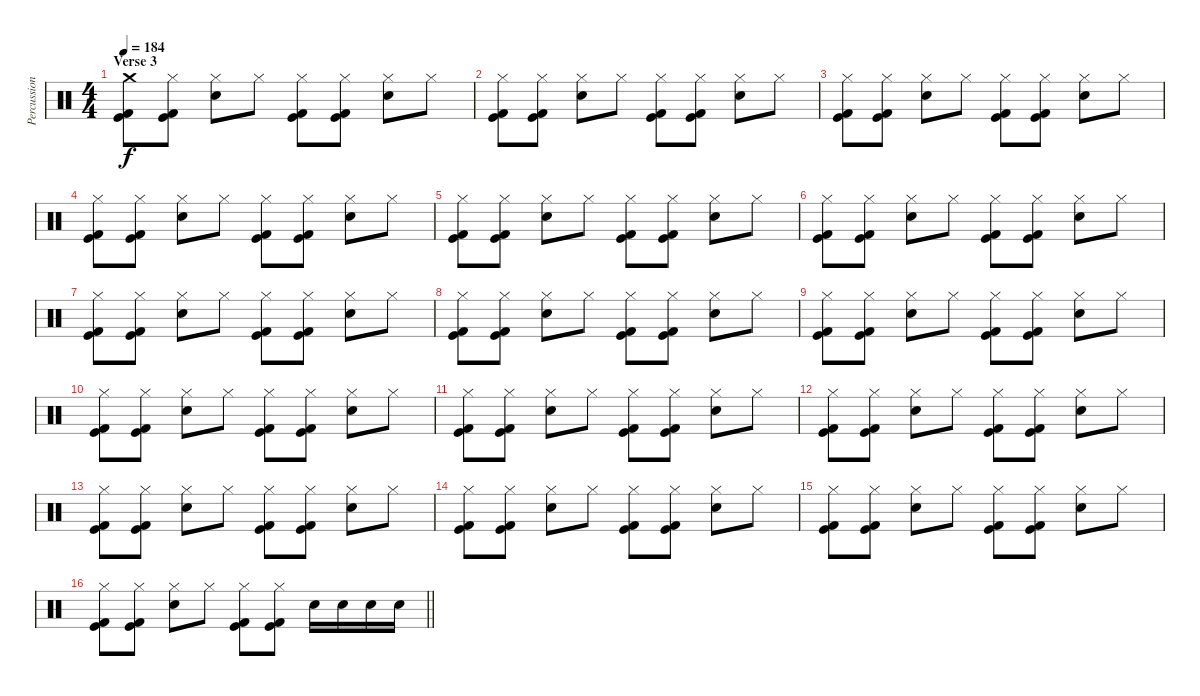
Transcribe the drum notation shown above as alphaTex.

\track ("Percussion" "Percussion") {instrument percussion}
\staff {score}
\articulation defaults
\ts (4 4)
\section ("" "Verse 3")
\tempo 184
\clef neutral
\ks c
("Crash medium (hit)" "Kick (hit)" "Kick (hit) 2").8{dy f} ("Hi-Hat (closed)" "Kick (hit)" "Kick (hit) 2").8 ("Hi-Hat (closed)" "Electric Snare (hit)").8 "Hi-Hat (closed)".8 ("Hi-Hat (closed)" "Kick (hit)" "Kick (hit) 2").8 ("Hi-Hat (closed)" "Kick (hit)" "Kick (hit) 2").8 ("Hi-Hat (closed)" "Electric Snare (hit)").8 "Hi-Hat (closed)".8 |
("Hi-Hat (closed)" "Kick (hit)" "Kick (hit) 2").8 ("Hi-Hat (closed)" "Kick (hit)" "Kick (hit) 2").8 ("Hi-Hat (closed)" "Electric Snare (hit)").8 "Hi-Hat (closed)".8 ("Hi-Hat (closed)" "Kick (hit)" "Kick (hit) 2").8 ("Hi-Hat (closed)" "Kick (hit)" "Kick (hit) 2").8 ("Hi-Hat (closed)" "Electric Snare (hit)").8 "Hi-Hat (closed)".8 |
("Hi-Hat (closed)" "Kick (hit)" "Kick (hit) 2").8 ("Hi-Hat (closed)" "Kick (hit)" "Kick (hit) 2").8 ("Hi-Hat (closed)" "Electric Snare (hit)").8 "Hi-Hat (closed)".8 ("Hi-Hat (closed)" "Kick (hit)" "Kick (hit) 2").8 ("Hi-Hat (closed)" "Kick (hit)" "Kick (hit) 2").8 ("Hi-Hat (closed)" "Electric Snare (hit)").8 "Hi-Hat (closed)".8 |
("Hi-Hat (closed)" "Kick (hit)" "Kick (hit) 2").8 ("Hi-Hat (closed)" "Kick (hit)" "Kick (hit) 2").8 ("Hi-Hat (closed)" "Electric Snare (hit)").8 "Hi-Hat (closed)".8 ("Hi-Hat (closed)" "Kick (hit)" "Kick (hit) 2").8 ("Hi-Hat (closed)" "Kick (hit)" "Kick (hit) 2").8 ("Hi-Hat (closed)" "Electric Snare (hit)").8 "Hi-Hat (closed)".8 |
("Hi-Hat (closed)" "Kick (hit)" "Kick (hit) 2").8 ("Hi-Hat (closed)" "Kick (hit)" "Kick (hit) 2").8 ("Hi-Hat (closed)" "Electric Snare (hit)").8 "Hi-Hat (closed)".8 ("Hi-Hat (closed)" "Kick (hit)" "Kick (hit) 2").8 ("Hi-Hat (closed)" "Kick (hit)" "Kick (hit) 2").8 ("Hi-Hat (closed)" "Electric Snare (hit)").8 "Hi-Hat (closed)".8 |
("Hi-Hat (closed)" "Kick (hit)" "Kick (hit) 2").8 ("Hi-Hat (closed)" "Kick (hit)" "Kick (hit) 2").8 ("Hi-Hat (closed)" "Electric Snare (hit)").8 "Hi-Hat (closed)".8 ("Hi-Hat (closed)" "Kick (hit)" "Kick (hit) 2").8 ("Hi-Hat (closed)" "Kick (hit)" "Kick (hit) 2").8 ("Hi-Hat (closed)" "Electric Snare (hit)").8 "Hi-Hat (closed)".8 |
("Hi-Hat (closed)" "Kick (hit)" "Kick (hit) 2").8 ("Hi-Hat (closed)" "Kick (hit)" "Kick (hit) 2").8 ("Hi-Hat (closed)" "Electric Snare (hit)").8 "Hi-Hat (closed)".8 ("Hi-Hat (closed)" "Kick (hit)" "Kick (hit) 2").8 ("Hi-Hat (closed)" "Kick (hit)" "Kick (hit) 2").8 ("Hi-Hat (closed)" "Electric Snare (hit)").8 "Hi-Hat (closed)".8 |
("Hi-Hat (closed)" "Kick (hit)" "Kick (hit) 2").8 ("Hi-Hat (closed)" "Kick (hit)" "Kick (hit) 2").8 ("Hi-Hat (closed)" "Electric Snare (hit)").8 "Hi-Hat (closed)".8 ("Hi-Hat (closed)" "Kick (hit)" "Kick (hit) 2").8 ("Hi-Hat (closed)" "Kick (hit)" "Kick (hit) 2").8 ("Hi-Hat (closed)" "Electric Snare (hit)").8 "Hi-Hat (closed)".8 |
("Hi-Hat (closed)" "Kick (hit)" "Kick (hit) 2").8 ("Hi-Hat (closed)" "Kick (hit)" "Kick (hit) 2").8 ("Hi-Hat (closed)" "Electric Snare (hit)").8 "Hi-Hat (closed)".8 ("Hi-Hat (closed)" "Kick (hit)" "Kick (hit) 2").8 ("Hi-Hat (closed)" "Kick (hit)" "Kick (hit) 2").8 ("Hi-Hat (closed)" "Electric Snare (hit)").8 "Hi-Hat (closed)".8 |
("Hi-Hat (closed)" "Kick (hit)" "Kick (hit) 2").8 ("Hi-Hat (closed)" "Kick (hit)" "Kick (hit) 2").8 ("Hi-Hat (closed)" "Electric Snare (hit)").8 "Hi-Hat (closed)".8 ("Hi-Hat (closed)" "Kick (hit)" "Kick (hit) 2").8 ("Hi-Hat (closed)" "Kick (hit)" "Kick (hit) 2").8 ("Hi-Hat (closed)" "Electric Snare (hit)").8 "Hi-Hat (closed)".8 |
("Hi-Hat (closed)" "Kick (hit)" "Kick (hit) 2").8 ("Hi-Hat (closed)" "Kick (hit)" "Kick (hit) 2").8 ("Hi-Hat (closed)" "Electric Snare (hit)").8 "Hi-Hat (closed)".8 ("Hi-Hat (closed)" "Kick (hit)" "Kick (hit) 2").8 ("Hi-Hat (closed)" "Kick (hit)" "Kick (hit) 2").8 ("Hi-Hat (closed)" "Electric Snare (hit)").8 "Hi-Hat (closed)".8 |
("Hi-Hat (closed)" "Kick (hit)" "Kick (hit) 2").8 ("Hi-Hat (closed)" "Kick (hit)" "Kick (hit) 2").8 ("Hi-Hat (closed)" "Electric Snare (hit)").8 "Hi-Hat (closed)".8 ("Hi-Hat (closed)" "Kick (hit)" "Kick (hit) 2").8 ("Hi-Hat (closed)" "Kick (hit)" "Kick (hit) 2").8 ("Hi-Hat (closed)" "Electric Snare (hit)").8 "Hi-Hat (closed)".8 |
("Hi-Hat (closed)" "Kick (hit)" "Kick (hit) 2").8 ("Hi-Hat (closed)" "Kick (hit)" "Kick (hit) 2").8 ("Hi-Hat (closed)" "Electric Snare (hit)").8 "Hi-Hat (closed)".8 ("Hi-Hat (closed)" "Kick (hit)" "Kick (hit) 2").8 ("Hi-Hat (closed)" "Kick (hit)" "Kick (hit) 2").8 ("Hi-Hat (closed)" "Electric Snare (hit)").8 "Hi-Hat (closed)".8 |
("Hi-Hat (closed)" "Kick (hit)" "Kick (hit) 2").8 ("Hi-Hat (closed)" "Kick (hit)" "Kick (hit) 2").8 ("Hi-Hat (closed)" "Electric Snare (hit)").8 "Hi-Hat (closed)".8 ("Hi-Hat (closed)" "Kick (hit)" "Kick (hit) 2").8 ("Hi-Hat (closed)" "Kick (hit)" "Kick (hit) 2").8 ("Hi-Hat (closed)" "Electric Snare (hit)").8 "Hi-Hat (closed)".8 |
("Hi-Hat (closed)" "Kick (hit)" "Kick (hit) 2").8 ("Hi-Hat (closed)" "Kick (hit)" "Kick (hit) 2").8 ("Hi-Hat (closed)" "Electric Snare (hit)").8 "Hi-Hat (closed)".8 ("Hi-Hat (closed)" "Kick (hit)" "Kick (hit) 2").8 ("Hi-Hat (closed)" "Kick (hit)" "Kick (hit) 2").8 ("Hi-Hat (closed)" "Electric Snare (hit)").8 "Hi-Hat (closed)".8 |
\barLineRight lightlight
("Hi-Hat (closed)" "Kick (hit)" "Kick (hit) 2").8 ("Hi-Hat (closed)" "Kick (hit)" "Kick (hit) 2").8 ("Hi-Hat (closed)" "Electric Snare (hit)").8 "Hi-Hat (closed)".8 ("Hi-Hat (closed)" "Kick (hit)" "Kick (hit) 2").8 ("Hi-Hat (closed)" "Kick (hit)" "Kick (hit) 2").8 "Electric Snare (hit)".16 "Electric Snare (hit)".16 "Electric Snare (hit)".16 "Electric Snare (hit)".16
